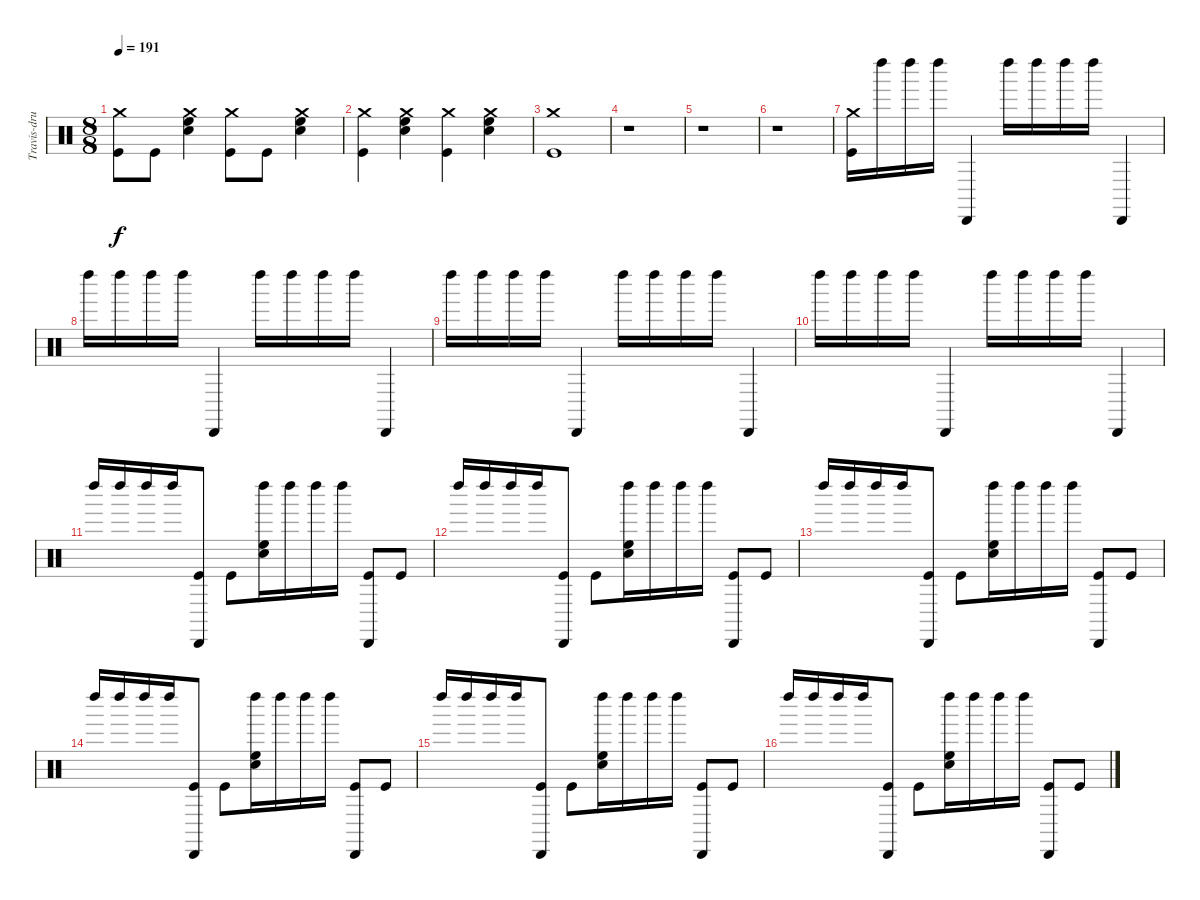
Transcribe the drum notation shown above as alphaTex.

\track ("Travis-drums" "Travis-dru") {instrument percussion}
\staff {score}
\articulation defaults
\ts (8 8)
\tempo 191
\clef neutral
\ks c
("Crash medium (hit)" "Kick (hit)").8{dy f} "Kick (hit)".8 ("Crash medium (hit)" "High Floor Tom (hit)" "Electric Snare (hit)").4 ("Crash medium (hit)" "Kick (hit)").8 "Kick (hit)".8 ("Crash medium (hit)" "High Floor Tom (hit)" "Electric Snare (hit)").4 |
("Crash medium (hit)" "Kick (hit)").4 ("Crash medium (hit)" "High Floor Tom (hit)" "Electric Snare (hit)").4 ("Crash medium (hit)" "Kick (hit)").4 ("Crash medium (hit)" "High Floor Tom (hit)" "Electric Snare (hit)").4 |
("Crash medium (hit)" "Kick (hit)").1 |
r.1 |
r.1 |
r.1 |
("Crash medium (hit)" "Kick (hit)").16 "Left Maraca (hit)".16 "Left Maraca (hit)".16 "Left Maraca (hit)".16 "Cabasa (hit)".4 "Left Maraca (hit)".16 "Left Maraca (hit)".16 "Left Maraca (hit)".16 "Left Maraca (hit)".16 "Cabasa (hit)".4 |
"Left Maraca (hit)".16 "Left Maraca (hit)".16 "Left Maraca (hit)".16 "Left Maraca (hit)".16 "Cabasa (hit)".4 "Left Maraca (hit)".16 "Left Maraca (hit)".16 "Left Maraca (hit)".16 "Left Maraca (hit)".16 "Cabasa (hit)".4 |
"Left Maraca (hit)".16 "Left Maraca (hit)".16 "Left Maraca (hit)".16 "Left Maraca (hit)".16 "Cabasa (hit)".4 "Left Maraca (hit)".16 "Left Maraca (hit)".16 "Left Maraca (hit)".16 "Left Maraca (hit)".16 "Cabasa (hit)".4 |
"Left Maraca (hit)".16 "Left Maraca (hit)".16 "Left Maraca (hit)".16 "Left Maraca (hit)".16 "Cabasa (hit)".4 "Left Maraca (hit)".16 "Left Maraca (hit)".16 "Left Maraca (hit)".16 "Left Maraca (hit)".16 "Cabasa (hit)".4 |
"Left Maraca (hit)".16 "Left Maraca (hit)".16 "Left Maraca (hit)".16 "Left Maraca (hit)".16 ("Kick (hit)" "Cabasa (hit)").8 "Kick (hit)".8 ("High Floor Tom (hit)" "Electric Snare (hit)" "Left Maraca (hit)").16 "Left Maraca (hit)".16 "Left Maraca (hit)".16 "Left Maraca (hit)".16 ("Kick (hit)" "Cabasa (hit)").8 "Kick (hit)".8 |
"Left Maraca (hit)".16 "Left Maraca (hit)".16 "Left Maraca (hit)".16 "Left Maraca (hit)".16 ("Kick (hit)" "Cabasa (hit)").8 "Kick (hit)".8 ("High Floor Tom (hit)" "Electric Snare (hit)" "Left Maraca (hit)").16 "Left Maraca (hit)".16 "Left Maraca (hit)".16 "Left Maraca (hit)".16 ("Kick (hit)" "Cabasa (hit)").8 "Kick (hit)".8 |
"Left Maraca (hit)".16 "Left Maraca (hit)".16 "Left Maraca (hit)".16 "Left Maraca (hit)".16 ("Kick (hit)" "Cabasa (hit)").8 "Kick (hit)".8 ("High Floor Tom (hit)" "Electric Snare (hit)" "Left Maraca (hit)").16 "Left Maraca (hit)".16 "Left Maraca (hit)".16 "Left Maraca (hit)".16 ("Kick (hit)" "Cabasa (hit)").8 "Kick (hit)".8 |
"Left Maraca (hit)".16 "Left Maraca (hit)".16 "Left Maraca (hit)".16 "Left Maraca (hit)".16 ("Kick (hit)" "Cabasa (hit)").8 "Kick (hit)".8 ("High Floor Tom (hit)" "Electric Snare (hit)" "Left Maraca (hit)").16 "Left Maraca (hit)".16 "Left Maraca (hit)".16 "Left Maraca (hit)".16 ("Kick (hit)" "Cabasa (hit)").8 "Kick (hit)".8 |
"Left Maraca (hit)".16 "Left Maraca (hit)".16 "Left Maraca (hit)".16 "Left Maraca (hit)".16 ("Kick (hit)" "Cabasa (hit)").8 "Kick (hit)".8 ("High Floor Tom (hit)" "Electric Snare (hit)" "Left Maraca (hit)").16 "Left Maraca (hit)".16 "Left Maraca (hit)".16 "Left Maraca (hit)".16 ("Kick (hit)" "Cabasa (hit)").8 "Kick (hit)".8 |
"Left Maraca (hit)".16 "Left Maraca (hit)".16 "Left Maraca (hit)".16 "Left Maraca (hit)".16 ("Kick (hit)" "Cabasa (hit)").8 "Kick (hit)".8 ("High Floor Tom (hit)" "Electric Snare (hit)" "Left Maraca (hit)").16 "Left Maraca (hit)".16 "Left Maraca (hit)".16 "Left Maraca (hit)".16 ("Kick (hit)" "Cabasa (hit)").8 "Kick (hit)".8
